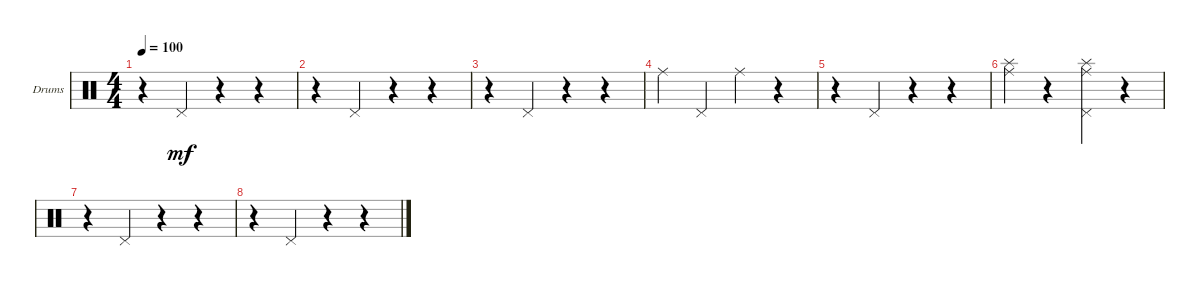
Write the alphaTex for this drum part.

\defaultSystemsLayout 4
\bracketExtendMode groupsimilarinstruments
\firstSystemTrackNameOrientation horizontal
\otherSystemsTrackNameOrientation horizontal
\track ("Joey Baron" "Drums") {instrument percussion}
\staff {score}
\articulation defaults
\ts (4 4)
\tempo 100
\clef neutral
\ks c
r.4{dy mf} "Pedal Hi-Hat (hit)".4 r.4 r.4 |
r.4 "Pedal Hi-Hat (hit)".4 r.4 r.4 |
r.4 "Pedal Hi-Hat (hit)".4 r.4 r.4 |
"Ride (middle)".4 "Pedal Hi-Hat (hit)".4 "Ride (middle)".4 r.4 |
r.4 "Pedal Hi-Hat (hit)".4 r.4 r.4 |
("Ride (middle)" "Splash (hit)").4 r.4 ("Pedal Hi-Hat (hit)" "Ride (middle)" "Splash (hit)").4 r.4 |
r.4 "Pedal Hi-Hat (hit)".4 r.4 r.4 |
r.4 "Pedal Hi-Hat (hit)".4 r.4 r.4
